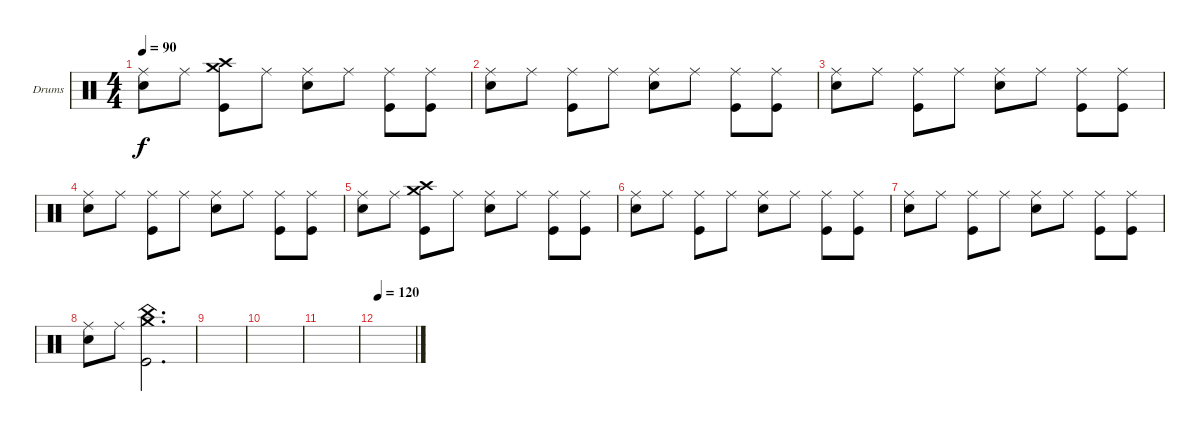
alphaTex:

\defaultSystemsLayout 4
\bracketExtendMode groupsimilarinstruments
\firstSystemTrackNameOrientation horizontal
\otherSystemsTrackNameOrientation horizontal
\track ("Drumkit" "Drums") {instrument percussion}
\staff {score}
\articulation defaults
\ts (4 4)
\tempo 90
\clef neutral
\ks c
("Snare (hit) 2" "Ride (middle)").8{dy f} "Ride (middle)".8 ("Kick (hit)" "Crash high (hit)" "Crash medium (hit)").8 "Ride (middle)".8 ("Snare (hit) 2" "Ride (middle)").8 "Ride (middle)".8 ("Kick (hit)" "Ride (middle)").8 ("Kick (hit)" "Ride (middle)").8 |
("Snare (hit) 2" "Ride (middle)").8 "Ride (middle)".8 ("Kick (hit)" "Ride (middle)").8 "Ride (middle)".8 ("Snare (hit) 2" "Ride (middle)").8 "Ride (middle)".8 ("Kick (hit)" "Ride (middle)").8 ("Kick (hit)" "Ride (middle)").8 |
("Snare (hit) 2" "Ride (middle)").8 "Ride (middle)".8 ("Kick (hit)" "Ride (middle)").8 "Ride (middle)".8 ("Snare (hit) 2" "Ride (middle)").8 "Ride (middle)".8 ("Kick (hit)" "Ride (middle)").8 ("Kick (hit)" "Ride (middle)").8 |
("Snare (hit) 2" "Ride (middle)").8 "Ride (middle)".8 ("Kick (hit)" "Ride (middle)").8 "Ride (middle)".8 ("Snare (hit) 2" "Ride (middle)").8 "Ride (middle)".8 ("Kick (hit)" "Ride (middle)").8 ("Kick (hit)" "Ride (middle)").8 |
("Snare (hit) 2" "Ride (middle)").8 "Ride (middle)".8 ("Kick (hit)" "Crash high (hit)" "Crash medium (hit)").8 "Ride (middle)".8 ("Snare (hit) 2" "Ride (middle)").8 "Ride (middle)".8 ("Kick (hit)" "Ride (middle)").8 ("Kick (hit)" "Ride (middle)").8 |
("Snare (hit) 2" "Ride (middle)").8 "Ride (middle)".8 ("Kick (hit)" "Ride (middle)").8 "Ride (middle)".8 ("Snare (hit) 2" "Ride (middle)").8 "Ride (middle)".8 ("Kick (hit)" "Ride (middle)").8 ("Kick (hit)" "Ride (middle)").8 |
("Snare (hit) 2" "Ride (middle)").8 "Ride (middle)".8 ("Kick (hit)" "Ride (middle)").8 "Ride (middle)".8 ("Snare (hit) 2" "Ride (middle)").8 "Ride (middle)".8 ("Kick (hit)" "Ride (middle)").8 ("Kick (hit)" "Ride (middle)").8 |
("Snare (hit) 2" "Ride (middle)").8 "Ride (middle)".8 ("Kick (hit)" "Crash medium (hit)" "China (hit)").2{d} |
|
|
|
\tempo 120
